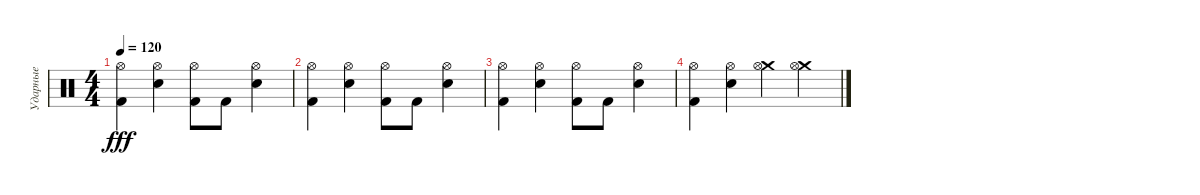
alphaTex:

\track ("Ударные" "Ударные") {instrument percussion}
\staff {score}
\articulation defaults
\ts (4 4)
\tempo 120
\clef neutral
\ks c
("Hi-Hat (open)" "Kick (hit) 2").4{dy fff} ("Hi-Hat (open)" "Snare (hit) 2").4 ("Hi-Hat (open)" "Kick (hit) 2").8 "Kick (hit) 2".8 ("Hi-Hat (open)" "Snare (hit) 2").4 |
("Hi-Hat (open)" "Kick (hit) 2").4 ("Hi-Hat (open)" "Snare (hit) 2").4 ("Hi-Hat (open)" "Kick (hit) 2").8 "Kick (hit) 2".8 ("Hi-Hat (open)" "Snare (hit) 2").4 |
("Hi-Hat (open)" "Kick (hit) 2").4 ("Hi-Hat (open)" "Snare (hit) 2").4 ("Hi-Hat (open)" "Kick (hit) 2").8 "Kick (hit) 2".8 ("Hi-Hat (open)" "Snare (hit) 2").4 |
("Hi-Hat (open)" "Kick (hit) 2").4 ("Hi-Hat (open)" "Snare (hit) 2").4 ("Crash medium (hit)" "Hi-Hat (open)").4 ("Crash medium (hit)" "Hi-Hat (open)").4
